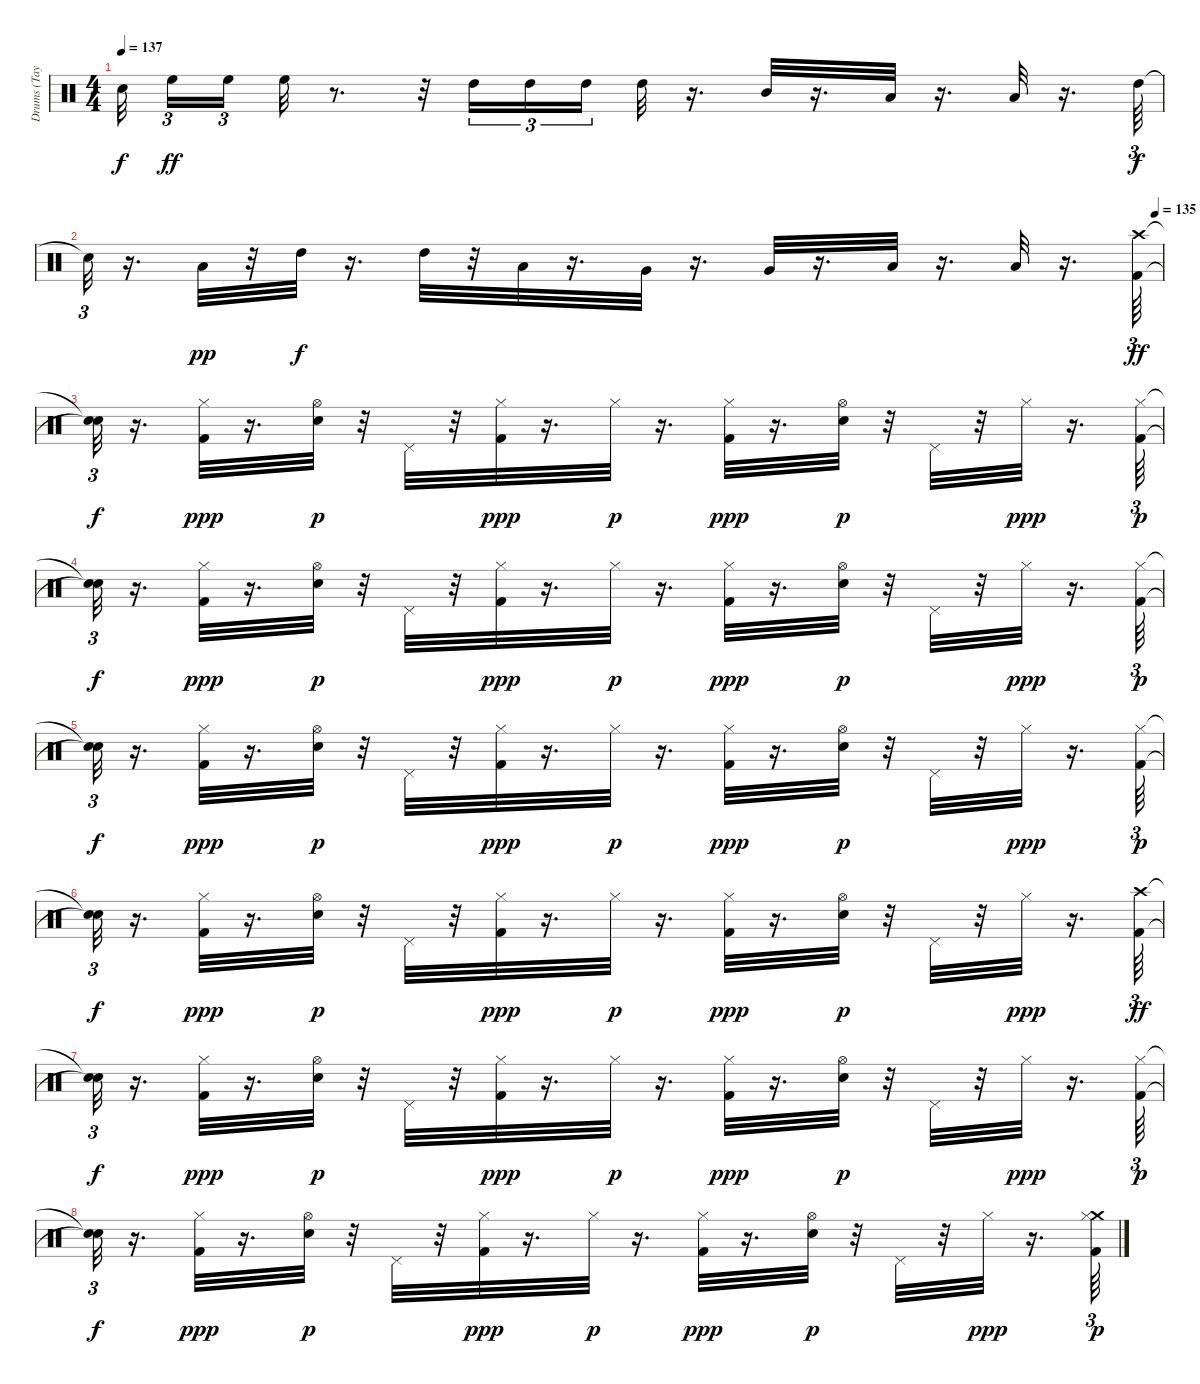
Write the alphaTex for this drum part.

\track ("Drums (Taylor)" "Drums (Tay") {instrument percussion}
\staff {score}
\articulation defaults
\ts (4 4)
\tempo 137
\clef neutral
\ks c "Snare (hit)"{t}.32{dy f beam splitsecondary} "High Floor Tom (hit)".16{tu (3 2) dy ff} "High Floor Tom (hit)".16{tu (3 2) beam splitsecondary} "High Floor Tom (hit)".32
r.8{d} r.32 "High Tom (hit)".16{tu (3 2)} "High Tom (hit)".16{tu (3 2)} "High Tom (hit)".16{tu (3 2) beam splitsecondary} "High Tom (hit)".32 r.16{d} "Mid Tom (hit)".32 r.16{d} "Low Tom (hit)".32 r.16{d} "Low Tom (hit)".32 r.16{d} "High Tom (hit)".64{tu (3 2) dy f} |
\tempo (135 0.99375)
"Snare (hit)"{t}.32{tu (3 2)} r.16{d} "Low Tom (hit)".32{dy pp} r.32 "High Tom (hit)".32{dy f} r.16{d} "High Tom (hit)".32 r.32 "Low Tom (hit)".32 r.16{d} "Very Low Tom (hit)".32 r.16{d} "Very Low Tom (hit)".32 r.16{d} "Low Floor Tom (hit)".32 r.16{d} "Low Floor Tom (hit)".32 r.16{d} ("Kick (hit) 2" "Crash high (hit)").64{tu (3 2) dy ff} |
("Snare (hit)"{t} "Snare (hit)"{t}).32{tu (3 2) dy f} r.16{d} ("Kick (hit) 2" "Hi-Hat (closed)").32{dy ppp} r.16{d} ("Snare (hit) 2" "Hi-Hat (open)").32{dy p} r.32 "Pedal Hi-Hat (hit)".32 r.32 ("Kick (hit) 2" "Hi-Hat (closed)").32{dy ppp} r.16{d} "Hi-Hat (closed)".32{dy p} r.16{d} ("Kick (hit) 2" "Hi-Hat (closed)").32{dy ppp} r.16{d} ("Snare (hit) 2" "Hi-Hat (open)").32{dy p} r.32 "Pedal Hi-Hat (hit)".32 r.32 "Hi-Hat (closed)".32{dy ppp} r.16{d} ("Kick (hit) 2" "Hi-Hat (closed)").64{tu (3 2) dy p} |
("Snare (hit)"{t} "Snare (hit)"{t}).32{tu (3 2) dy f} r.16{d} ("Kick (hit) 2" "Hi-Hat (closed)").32{dy ppp} r.16{d} ("Snare (hit) 2" "Hi-Hat (open)").32{dy p} r.32 "Pedal Hi-Hat (hit)".32 r.32 ("Kick (hit) 2" "Hi-Hat (closed)").32{dy ppp} r.16{d} "Hi-Hat (closed)".32{dy p} r.16{d} ("Kick (hit) 2" "Hi-Hat (closed)").32{dy ppp} r.16{d} ("Snare (hit) 2" "Hi-Hat (open)").32{dy p} r.32 "Pedal Hi-Hat (hit)".32 r.32 "Hi-Hat (closed)".32{dy ppp} r.16{d} ("Kick (hit) 2" "Hi-Hat (closed)").64{tu (3 2) dy p} |
("Snare (hit)"{t} "Snare (hit)"{t}).32{tu (3 2) dy f} r.16{d} ("Kick (hit) 2" "Hi-Hat (closed)").32{dy ppp} r.16{d} ("Snare (hit) 2" "Hi-Hat (open)").32{dy p} r.32 "Pedal Hi-Hat (hit)".32 r.32 ("Kick (hit) 2" "Hi-Hat (closed)").32{dy ppp} r.16{d} "Hi-Hat (closed)".32{dy p} r.16{d} ("Kick (hit) 2" "Hi-Hat (closed)").32{dy ppp} r.16{d} ("Snare (hit) 2" "Hi-Hat (open)").32{dy p} r.32 "Pedal Hi-Hat (hit)".32 r.32 "Hi-Hat (closed)".32{dy ppp} r.16{d} ("Kick (hit) 2" "Hi-Hat (closed)").64{tu (3 2) dy p} |
("Snare (hit)"{t} "Snare (hit)"{t}).32{tu (3 2) dy f} r.16{d} ("Kick (hit) 2" "Hi-Hat (closed)").32{dy ppp} r.16{d} ("Snare (hit) 2" "Hi-Hat (open)").32{dy p} r.32 "Pedal Hi-Hat (hit)".32 r.32 ("Kick (hit) 2" "Hi-Hat (closed)").32{dy ppp} r.16{d} "Hi-Hat (closed)".32{dy p} r.16{d} ("Kick (hit) 2" "Hi-Hat (closed)").32{dy ppp} r.16{d} ("Snare (hit) 2" "Hi-Hat (open)").32{dy p} r.32 "Pedal Hi-Hat (hit)".32 r.32 "Hi-Hat (closed)".32{dy ppp} r.16{d} ("Kick (hit) 2" "Crash high (hit)").64{tu (3 2) dy ff} |
("Snare (hit)"{t} "Snare (hit)"{t}).32{tu (3 2) dy f} r.16{d} ("Kick (hit) 2" "Hi-Hat (closed)").32{dy ppp} r.16{d} ("Snare (hit) 2" "Hi-Hat (open)").32{dy p} r.32 "Pedal Hi-Hat (hit)".32 r.32 ("Kick (hit) 2" "Hi-Hat (closed)").32{dy ppp} r.16{d} "Hi-Hat (closed)".32{dy p} r.16{d} ("Kick (hit) 2" "Hi-Hat (closed)").32{dy ppp} r.16{d} ("Snare (hit) 2" "Hi-Hat (open)").32{dy p} r.32 "Pedal Hi-Hat (hit)".32 r.32 "Hi-Hat (closed)".32{dy ppp} r.16{d} ("Kick (hit) 2" "Hi-Hat (closed)").64{tu (3 2) dy p} |
("Snare (hit)"{t} "Snare (hit)"{t}).32{tu (3 2) dy f} r.16{d} ("Kick (hit) 2" "Hi-Hat (closed)").32{dy ppp} r.16{d} ("Snare (hit) 2" "Hi-Hat (open)").32{dy p} r.32 "Pedal Hi-Hat (hit)".32 r.32 ("Kick (hit) 2" "Hi-Hat (closed)").32{dy ppp} r.16{d} "Hi-Hat (closed)".32{dy p} r.16{d} ("Kick (hit) 2" "Hi-Hat (closed)").32{dy ppp} r.16{d} ("Snare (hit) 2" "Hi-Hat (open)").32{dy p} r.32 "Pedal Hi-Hat (hit)".32 r.32 "Hi-Hat (closed)".32{dy ppp} r.16{d} ("Crash medium (hit)" "Kick (hit) 2" "Hi-Hat (closed)").64{tu (3 2) dy p}
